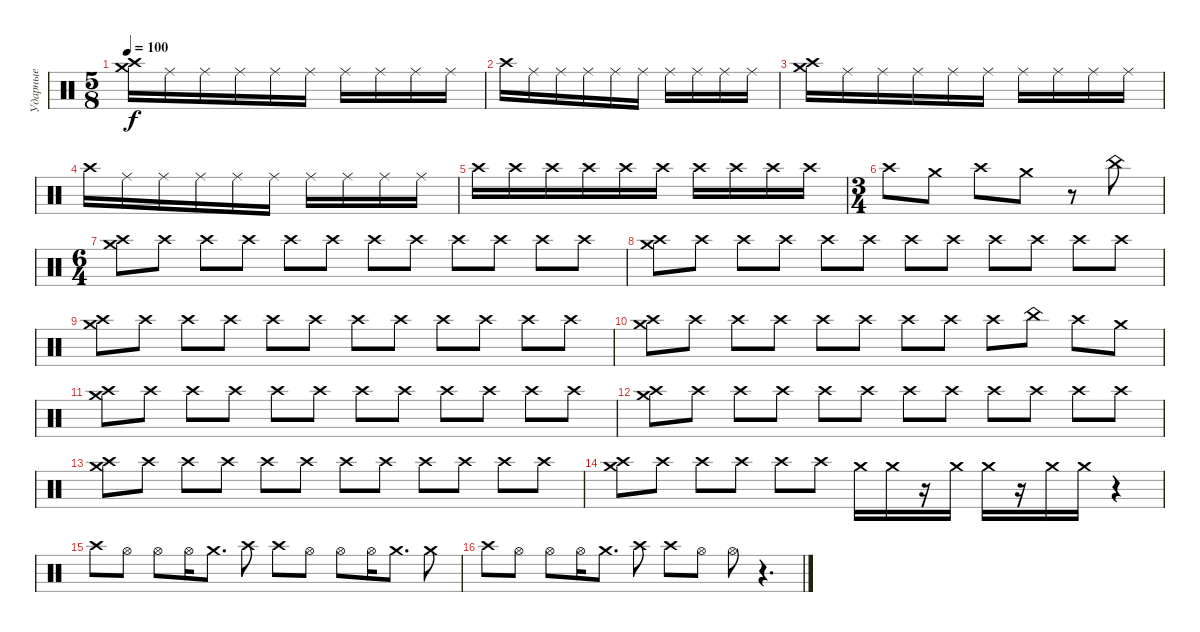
\track ("Ударные" "Ударные") {instrument percussion}
\staff {score}
\articulation defaults
\ts (5 8)
\tempo 100
\clef neutral
\ks c
("Crash high (hit)" "Crash medium (hit)").16{dy f} "Ride (middle)".16 "Ride (middle)".16 "Ride (middle)".16 "Ride (middle)".16 "Ride (middle)".16 "Ride (middle)".16 "Ride (middle)".16 "Ride (middle)".16 "Ride (middle)".16 |
"Crash high (hit)".16 "Ride (middle)".16 "Ride (middle)".16 "Ride (middle)".16 "Ride (middle)".16 "Ride (middle)".16 "Ride (middle)".16 "Ride (middle)".16 "Ride (middle)".16 "Ride (middle)".16 |
("Crash high (hit)" "Crash medium (hit)").16 "Ride (middle)".16 "Ride (middle)".16 "Ride (middle)".16 "Ride (middle)".16 "Ride (middle)".16 "Ride (middle)".16 "Ride (middle)".16 "Ride (middle)".16 "Ride (middle)".16 |
"Crash high (hit)".16 "Ride (middle)".16 "Ride (middle)".16 "Ride (middle)".16 "Ride (middle)".16 "Ride (middle)".16 "Ride (middle)".16 "Ride (middle)".16 "Ride (middle)".16 "Ride (middle)".16 |
"Crash high (hit)".16 "Crash high (hit)".16 "Crash high (hit)".16 "Crash high (hit)".16 "Crash high (hit)".16 "Crash high (hit)".16 "Crash high (hit)".16 "Crash high (hit)".16 "Crash high (hit)".16 "Crash high (hit)".16 |
\ts (3 4)
"Crash high (hit)".8 "Crash medium (hit)".8 "Crash high (hit)".8 "Crash medium (hit)".8 r.8 "China (hit)".8 |
\ts (6 4)
("Crash high (hit)" "Crash medium (hit)").8 "Crash high (hit)".8 "Crash high (hit)".8 "Crash high (hit)".8 "Crash high (hit)".8 "Crash high (hit)".8 "Crash high (hit)".8 "Crash high (hit)".8 "Crash high (hit)".8 "Crash high (hit)".8 "Crash high (hit)".8 "Crash high (hit)".8 |
("Crash high (hit)" "Crash medium (hit)").8 "Crash high (hit)".8 "Crash high (hit)".8 "Crash high (hit)".8 "Crash high (hit)".8 "Crash high (hit)".8 "Crash high (hit)".8 "Crash high (hit)".8 "Crash high (hit)".8 "Crash high (hit)".8 "Crash high (hit)".8 "Crash high (hit)".8 |
("Crash high (hit)" "Crash medium (hit)").8 "Crash high (hit)".8 "Crash high (hit)".8 "Crash high (hit)".8 "Crash high (hit)".8 "Crash high (hit)".8 "Crash high (hit)".8 "Crash high (hit)".8 "Crash high (hit)".8 "Crash high (hit)".8 "Crash high (hit)".8 "Crash high (hit)".8 |
("Crash high (hit)" "Crash medium (hit)").8 "Crash high (hit)".8 "Crash high (hit)".8 "Crash high (hit)".8 "Crash high (hit)".8 "Crash high (hit)".8 "Crash high (hit)".8 "Crash high (hit)".8 "Crash high (hit)".8 "China (hit)".8 "Crash high (hit)".8 "Crash medium (hit)".8 |
("Crash high (hit)" "Crash medium (hit)").8 "Crash high (hit)".8 "Crash high (hit)".8 "Crash high (hit)".8 "Crash high (hit)".8 "Crash high (hit)".8 "Crash high (hit)".8 "Crash high (hit)".8 "Crash high (hit)".8 "Crash high (hit)".8 "Crash high (hit)".8 "Crash high (hit)".8 |
("Crash high (hit)" "Crash medium (hit)").8 "Crash high (hit)".8 "Crash high (hit)".8 "Crash high (hit)".8 "Crash high (hit)".8 "Crash high (hit)".8 "Crash high (hit)".8 "Crash high (hit)".8 "Crash high (hit)".8 "Crash high (hit)".8 "Crash high (hit)".8 "Crash high (hit)".8 |
("Crash high (hit)" "Crash medium (hit)").8 "Crash high (hit)".8 "Crash high (hit)".8 "Crash high (hit)".8 "Crash high (hit)".8 "Crash high (hit)".8 "Crash high (hit)".8 "Crash high (hit)".8 "Crash high (hit)".8 "Crash high (hit)".8 "Crash high (hit)".8 "Crash high (hit)".8 |
("Crash high (hit)" "Crash medium (hit)").8 "Crash high (hit)".8 "Crash high (hit)".8 "Crash high (hit)".8 "Crash high (hit)".8 "Crash high (hit)".8 "Crash medium (hit)".16 "Crash medium (hit)".16 r.16 "Crash medium (hit)".16 "Crash medium (hit)".16 r.16 "Crash medium (hit)".16 "Crash medium (hit)".16 r.4 |
"Crash high (hit)".8 "Hi-Hat (open)".8 "Hi-Hat (open)".8 "Hi-Hat (open)".16 "Crash medium (hit)".8{d} "Crash high (hit)".8 "Crash high (hit)".8 "Hi-Hat (open)".8 "Hi-Hat (open)".8 "Hi-Hat (open)".16 "Crash medium (hit)".8{d} "Crash medium (hit)".8 |
"Crash high (hit)".8 "Hi-Hat (open)".8 "Hi-Hat (open)".8 "Hi-Hat (open)".16 "Crash medium (hit)".8{d} "Crash high (hit)".8 "Crash high (hit)".8 "Hi-Hat (open)".8 "Hi-Hat (open)".8 r.4{d}
